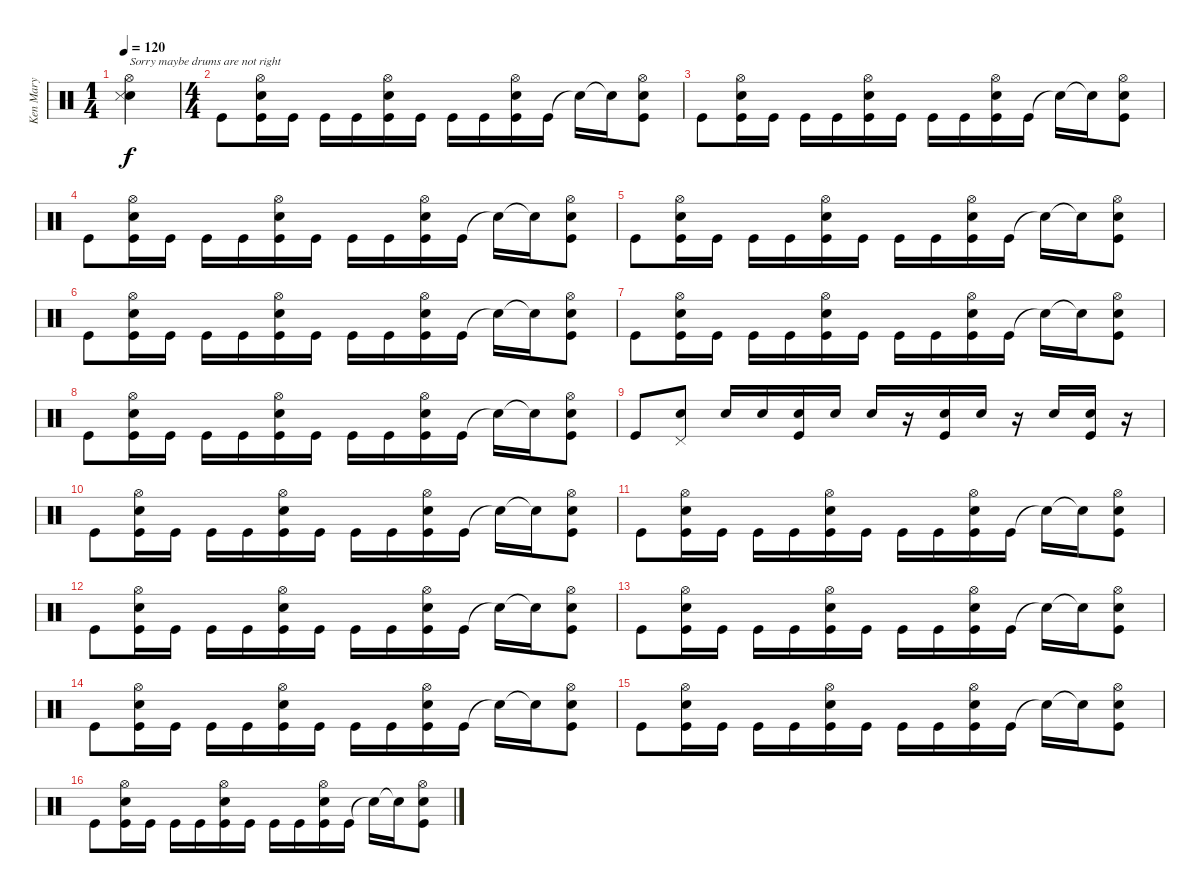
\track ("Ken Mary" "Ken Mary") {instrument percussion}
\staff {score}
\articulation defaults
\ts (1 4)
\tempo 120
\clef neutral
\ks c
("Hi-Hat (open)" "Snare (hit) 2" "Snare (side stick) 3").4{txt "Sorry maybe drums are not right" dy f} |
\ts (4 4)
"Kick (hit)".8 ("Hi-Hat (open)" "Snare (hit) 2" "Kick (hit)").16 "Kick (hit)".16 "Kick (hit)".16 "Kick (hit)".16 ("Hi-Hat (open)" "Snare (hit) 2" "Kick (hit)").16 "Kick (hit)".16 "Kick (hit)".16 "Kick (hit)".16 ("Hi-Hat (open)" "Snare (hit) 2" "Kick (hit)").16 "Kick (hit)".16 "Snare (hit)"{t}.16 "Snare (hit)"{t}.16 ("Snare (hit) 2" "Hi-Hat (open)" "Kick (hit)").8 |
"Kick (hit)".8 ("Hi-Hat (open)" "Snare (hit) 2" "Kick (hit)").16 "Kick (hit)".16 "Kick (hit)".16 "Kick (hit)".16 ("Hi-Hat (open)" "Snare (hit) 2" "Kick (hit)").16 "Kick (hit)".16 "Kick (hit)".16 "Kick (hit)".16 ("Hi-Hat (open)" "Snare (hit) 2" "Kick (hit)").16 "Kick (hit)".16 "Snare (hit)"{t}.16 "Snare (hit)"{t}.16 ("Snare (hit) 2" "Hi-Hat (open)" "Kick (hit)").8 |
"Kick (hit)".8 ("Hi-Hat (open)" "Snare (hit) 2" "Kick (hit)").16 "Kick (hit)".16 "Kick (hit)".16 "Kick (hit)".16 ("Hi-Hat (open)" "Snare (hit) 2" "Kick (hit)").16 "Kick (hit)".16 "Kick (hit)".16 "Kick (hit)".16 ("Hi-Hat (open)" "Snare (hit) 2" "Kick (hit)").16 "Kick (hit)".16 "Snare (hit)"{t}.16 "Snare (hit)"{t}.16 ("Snare (hit) 2" "Hi-Hat (open)" "Kick (hit)").8 |
"Kick (hit)".8 ("Hi-Hat (open)" "Snare (hit) 2" "Kick (hit)").16 "Kick (hit)".16 "Kick (hit)".16 "Kick (hit)".16 ("Hi-Hat (open)" "Snare (hit) 2" "Kick (hit)").16 "Kick (hit)".16 "Kick (hit)".16 "Kick (hit)".16 ("Hi-Hat (open)" "Snare (hit) 2" "Kick (hit)").16 "Kick (hit)".16 "Snare (hit)"{t}.16 "Snare (hit)"{t}.16 ("Snare (hit) 2" "Hi-Hat (open)" "Kick (hit)").8 |
"Kick (hit)".8 ("Hi-Hat (open)" "Snare (hit) 2" "Kick (hit)").16 "Kick (hit)".16 "Kick (hit)".16 "Kick (hit)".16 ("Hi-Hat (open)" "Snare (hit) 2" "Kick (hit)").16 "Kick (hit)".16 "Kick (hit)".16 "Kick (hit)".16 ("Hi-Hat (open)" "Snare (hit) 2" "Kick (hit)").16 "Kick (hit)".16 "Snare (hit)"{t}.16 "Snare (hit)"{t}.16 ("Snare (hit) 2" "Hi-Hat (open)" "Kick (hit)").8 |
"Kick (hit)".8 ("Hi-Hat (open)" "Snare (hit) 2" "Kick (hit)").16 "Kick (hit)".16 "Kick (hit)".16 "Kick (hit)".16 ("Hi-Hat (open)" "Snare (hit) 2" "Kick (hit)").16 "Kick (hit)".16 "Kick (hit)".16 "Kick (hit)".16 ("Hi-Hat (open)" "Snare (hit) 2" "Kick (hit)").16 "Kick (hit)".16 "Snare (hit)"{t}.16 "Snare (hit)"{t}.16 ("Snare (hit) 2" "Hi-Hat (open)" "Kick (hit)").8 |
"Kick (hit)".8 ("Hi-Hat (open)" "Snare (hit) 2" "Kick (hit)").16 "Kick (hit)".16 "Kick (hit)".16 "Kick (hit)".16 ("Hi-Hat (open)" "Snare (hit) 2" "Kick (hit)").16 "Kick (hit)".16 "Kick (hit)".16 "Kick (hit)".16 ("Hi-Hat (open)" "Snare (hit) 2" "Kick (hit)").16 "Kick (hit)".16 "Snare (hit)"{t}.16 "Snare (hit)"{t}.16 ("Snare (hit) 2" "Hi-Hat (open)" "Kick (hit)").8 |
"Kick (hit)".8 ("Pedal Hi-Hat (hit)" "Snare (hit) 2").8 "Snare (hit) 2".16 "Snare (hit) 2".16 ("Electric Snare (hit)" "Kick (hit)").16 "Snare (hit) 2".16 "Snare (hit) 2".16 r.16 ("Snare (hit) 2" "Kick (hit)").16 "Snare (hit) 2".16 r.16 "Snare (hit) 2".16 ("Snare (hit) 2" "Kick (hit)").16 r.16 |
"Kick (hit)".8 ("Hi-Hat (open)" "Snare (hit) 2" "Kick (hit)").16 "Kick (hit)".16 "Kick (hit)".16 "Kick (hit)".16 ("Hi-Hat (open)" "Snare (hit) 2" "Kick (hit)").16 "Kick (hit)".16 "Kick (hit)".16 "Kick (hit)".16 ("Hi-Hat (open)" "Snare (hit) 2" "Kick (hit)").16 "Kick (hit)".16 "Snare (hit)"{t}.16 "Snare (hit)"{t}.16 ("Snare (hit) 2" "Hi-Hat (open)" "Kick (hit)").8 |
"Kick (hit)".8 ("Hi-Hat (open)" "Snare (hit) 2" "Kick (hit)").16 "Kick (hit)".16 "Kick (hit)".16 "Kick (hit)".16 ("Hi-Hat (open)" "Snare (hit) 2" "Kick (hit)").16 "Kick (hit)".16 "Kick (hit)".16 "Kick (hit)".16 ("Hi-Hat (open)" "Snare (hit) 2" "Kick (hit)").16 "Kick (hit)".16 "Snare (hit)"{t}.16 "Snare (hit)"{t}.16 ("Snare (hit) 2" "Hi-Hat (open)" "Kick (hit)").8 |
"Kick (hit)".8 ("Hi-Hat (open)" "Snare (hit) 2" "Kick (hit)").16 "Kick (hit)".16 "Kick (hit)".16 "Kick (hit)".16 ("Hi-Hat (open)" "Snare (hit) 2" "Kick (hit)").16 "Kick (hit)".16 "Kick (hit)".16 "Kick (hit)".16 ("Hi-Hat (open)" "Snare (hit) 2" "Kick (hit)").16 "Kick (hit)".16 "Snare (hit)"{t}.16 "Snare (hit)"{t}.16 ("Snare (hit) 2" "Hi-Hat (open)" "Kick (hit)").8 |
"Kick (hit)".8 ("Hi-Hat (open)" "Snare (hit) 2" "Kick (hit)").16 "Kick (hit)".16 "Kick (hit)".16 "Kick (hit)".16 ("Hi-Hat (open)" "Snare (hit) 2" "Kick (hit)").16 "Kick (hit)".16 "Kick (hit)".16 "Kick (hit)".16 ("Hi-Hat (open)" "Snare (hit) 2" "Kick (hit)").16 "Kick (hit)".16 "Snare (hit)"{t}.16 "Snare (hit)"{t}.16 ("Snare (hit) 2" "Hi-Hat (open)" "Kick (hit)").8 |
"Kick (hit)".8 ("Hi-Hat (open)" "Snare (hit) 2" "Kick (hit)").16 "Kick (hit)".16 "Kick (hit)".16 "Kick (hit)".16 ("Hi-Hat (open)" "Snare (hit) 2" "Kick (hit)").16 "Kick (hit)".16 "Kick (hit)".16 "Kick (hit)".16 ("Hi-Hat (open)" "Snare (hit) 2" "Kick (hit)").16 "Kick (hit)".16 "Snare (hit)"{t}.16 "Snare (hit)"{t}.16 ("Snare (hit) 2" "Hi-Hat (open)" "Kick (hit)").8 |
"Kick (hit)".8 ("Hi-Hat (open)" "Snare (hit) 2" "Kick (hit)").16 "Kick (hit)".16 "Kick (hit)".16 "Kick (hit)".16 ("Hi-Hat (open)" "Snare (hit) 2" "Kick (hit)").16 "Kick (hit)".16 "Kick (hit)".16 "Kick (hit)".16 ("Hi-Hat (open)" "Snare (hit) 2" "Kick (hit)").16 "Kick (hit)".16 "Snare (hit)"{t}.16 "Snare (hit)"{t}.16 ("Snare (hit) 2" "Hi-Hat (open)" "Kick (hit)").8 |
"Kick (hit)".8 ("Hi-Hat (open)" "Snare (hit) 2" "Kick (hit)").16 "Kick (hit)".16 "Kick (hit)".16 "Kick (hit)".16 ("Hi-Hat (open)" "Snare (hit) 2" "Kick (hit)").16 "Kick (hit)".16 "Kick (hit)".16 "Kick (hit)".16 ("Hi-Hat (open)" "Snare (hit) 2" "Kick (hit)").16 "Kick (hit)".16 "Snare (hit)"{t}.16 "Snare (hit)"{t}.16 ("Snare (hit) 2" "Hi-Hat (open)" "Kick (hit)").8
